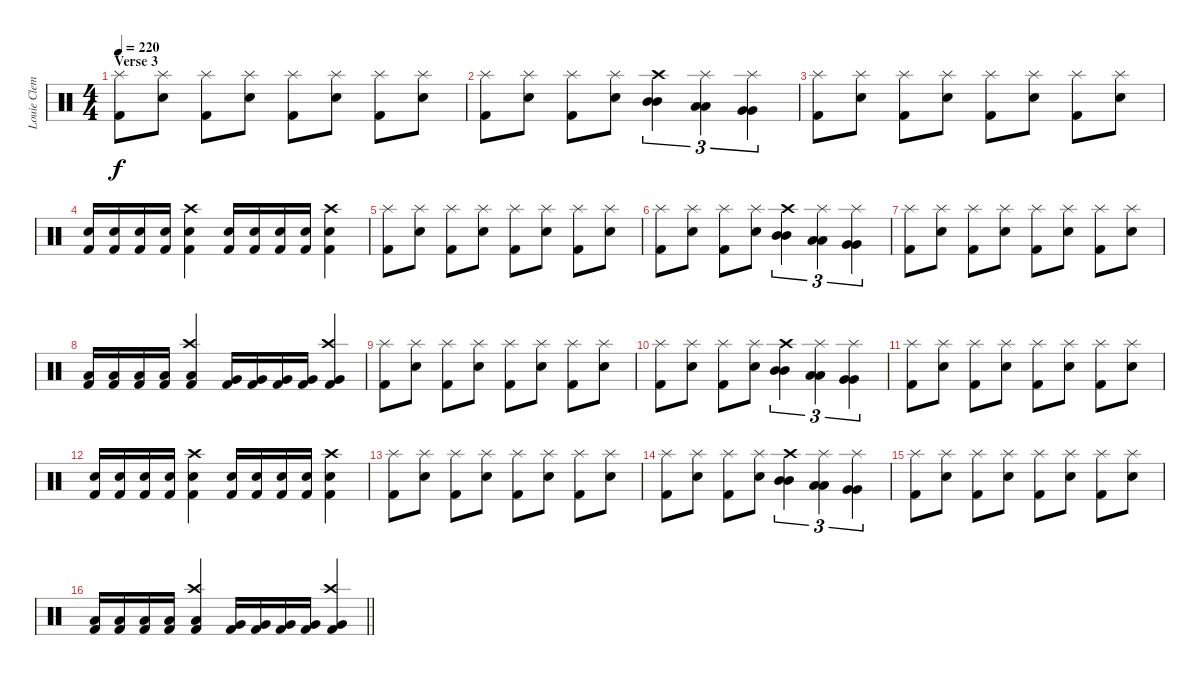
\track ("Louie Clemente (Drums)" "Louie Clem") {instrument percussion}
\staff {score}
\articulation defaults
\ts (4 4)
\section ("" "Verse 3")
\tempo 220
\clef neutral
\ks c
("Splash (hit)" "Kick (hit) 2").8{dy f} ("Splash (hit)" "Electric Snare (hit)").8 ("Splash (hit)" "Kick (hit) 2").8 ("Splash (hit)" "Electric Snare (hit)").8 ("Splash (hit)" "Kick (hit) 2").8 ("Splash (hit)" "Electric Snare (hit)").8 ("Splash (hit)" "Kick (hit) 2").8 ("Splash (hit)" "Electric Snare (hit)").8 |
("Splash (hit)" "Kick (hit) 2").8 ("Splash (hit)" "Electric Snare (hit)").8 ("Splash (hit)" "Kick (hit) 2").8 ("Splash (hit)" "Electric Snare (hit)").8 ("Crash high (hit)" "Mid Tom (hit)" "Mid Tom (hit)").4{tu (3 2)} ("Splash (hit)" "Low Tom (hit)" "Low Tom (hit)").4{tu (3 2)} ("Splash (hit)" "Very Low Tom (hit)" "Very Low Tom (hit)").4{tu (3 2)} |
("Splash (hit)" "Kick (hit) 2").8 ("Splash (hit)" "Electric Snare (hit)").8 ("Splash (hit)" "Kick (hit) 2").8 ("Splash (hit)" "Electric Snare (hit)").8 ("Splash (hit)" "Kick (hit) 2").8 ("Splash (hit)" "Electric Snare (hit)").8 ("Splash (hit)" "Kick (hit) 2").8 ("Splash (hit)" "Electric Snare (hit)").8 |
("Electric Snare (hit)" "Kick (hit) 2").16 ("Electric Snare (hit)" "Kick (hit) 2").16 ("Electric Snare (hit)" "Kick (hit) 2").16 ("Electric Snare (hit)" "Kick (hit) 2").16 ("Crash high (hit)" "Electric Snare (hit)" "Kick (hit) 2").4 ("Electric Snare (hit)" "Kick (hit) 2").16 ("Electric Snare (hit)" "Kick (hit) 2").16 ("Electric Snare (hit)" "Kick (hit) 2").16 ("Electric Snare (hit)" "Kick (hit) 2").16 ("Crash high (hit)" "Electric Snare (hit)" "Kick (hit) 2").4 |
("Splash (hit)" "Kick (hit) 2").8 ("Splash (hit)" "Electric Snare (hit)").8 ("Splash (hit)" "Kick (hit) 2").8 ("Splash (hit)" "Electric Snare (hit)").8 ("Splash (hit)" "Kick (hit) 2").8 ("Splash (hit)" "Electric Snare (hit)").8 ("Splash (hit)" "Kick (hit) 2").8 ("Splash (hit)" "Electric Snare (hit)").8 |
("Splash (hit)" "Kick (hit) 2").8 ("Splash (hit)" "Electric Snare (hit)").8 ("Splash (hit)" "Kick (hit) 2").8 ("Splash (hit)" "Electric Snare (hit)").8 ("Crash high (hit)" "Mid Tom (hit)" "Mid Tom (hit)").4{tu (3 2)} ("Splash (hit)" "Low Tom (hit)" "Low Tom (hit)").4{tu (3 2)} ("Splash (hit)" "Very Low Tom (hit)" "Very Low Tom (hit)").4{tu (3 2)} |
("Splash (hit)" "Kick (hit) 2").8 ("Splash (hit)" "Electric Snare (hit)").8 ("Splash (hit)" "Kick (hit) 2").8 ("Splash (hit)" "Electric Snare (hit)").8 ("Splash (hit)" "Kick (hit) 2").8 ("Splash (hit)" "Electric Snare (hit)").8 ("Splash (hit)" "Kick (hit) 2").8 ("Splash (hit)" "Electric Snare (hit)").8 |
("Low Tom (hit)" "Kick (hit) 2").16 ("Low Tom (hit)" "Kick (hit) 2").16 ("Low Tom (hit)" "Kick (hit) 2").16 ("Low Tom (hit)" "Kick (hit) 2").16 ("Crash high (hit)" "Low Tom (hit)" "Kick (hit) 2").4 ("Very Low Tom (hit)" "Kick (hit) 2").16 ("Very Low Tom (hit)" "Kick (hit) 2").16 ("Very Low Tom (hit)" "Kick (hit) 2").16 ("Very Low Tom (hit)" "Kick (hit) 2").16 ("Crash high (hit)" "Very Low Tom (hit)" "Kick (hit) 2").4 |
("Splash (hit)" "Kick (hit) 2").8 ("Splash (hit)" "Electric Snare (hit)").8 ("Splash (hit)" "Kick (hit) 2").8 ("Splash (hit)" "Electric Snare (hit)").8 ("Splash (hit)" "Kick (hit) 2").8 ("Splash (hit)" "Electric Snare (hit)").8 ("Splash (hit)" "Kick (hit) 2").8 ("Splash (hit)" "Electric Snare (hit)").8 |
("Splash (hit)" "Kick (hit) 2").8 ("Splash (hit)" "Electric Snare (hit)").8 ("Splash (hit)" "Kick (hit) 2").8 ("Splash (hit)" "Electric Snare (hit)").8 ("Crash high (hit)" "Mid Tom (hit)" "Mid Tom (hit)").4{tu (3 2)} ("Splash (hit)" "Low Tom (hit)" "Low Tom (hit)").4{tu (3 2)} ("Splash (hit)" "Very Low Tom (hit)" "Very Low Tom (hit)").4{tu (3 2)} |
("Splash (hit)" "Kick (hit) 2").8 ("Splash (hit)" "Electric Snare (hit)").8 ("Splash (hit)" "Kick (hit) 2").8 ("Splash (hit)" "Electric Snare (hit)").8 ("Splash (hit)" "Kick (hit) 2").8 ("Splash (hit)" "Electric Snare (hit)").8 ("Splash (hit)" "Kick (hit) 2").8 ("Splash (hit)" "Electric Snare (hit)").8 |
("Electric Snare (hit)" "Kick (hit) 2").16 ("Electric Snare (hit)" "Kick (hit) 2").16 ("Electric Snare (hit)" "Kick (hit) 2").16 ("Electric Snare (hit)" "Kick (hit) 2").16 ("Crash high (hit)" "Electric Snare (hit)" "Kick (hit) 2").4 ("Electric Snare (hit)" "Kick (hit) 2").16 ("Electric Snare (hit)" "Kick (hit) 2").16 ("Electric Snare (hit)" "Kick (hit) 2").16 ("Electric Snare (hit)" "Kick (hit) 2").16 ("Crash high (hit)" "Electric Snare (hit)" "Kick (hit) 2").4 |
("Splash (hit)" "Kick (hit) 2").8 ("Splash (hit)" "Electric Snare (hit)").8 ("Splash (hit)" "Kick (hit) 2").8 ("Splash (hit)" "Electric Snare (hit)").8 ("Splash (hit)" "Kick (hit) 2").8 ("Splash (hit)" "Electric Snare (hit)").8 ("Splash (hit)" "Kick (hit) 2").8 ("Splash (hit)" "Electric Snare (hit)").8 |
("Splash (hit)" "Kick (hit) 2").8 ("Splash (hit)" "Electric Snare (hit)").8 ("Splash (hit)" "Kick (hit) 2").8 ("Splash (hit)" "Electric Snare (hit)").8 ("Crash high (hit)" "Mid Tom (hit)" "Mid Tom (hit)").4{tu (3 2)} ("Splash (hit)" "Low Tom (hit)" "Low Tom (hit)").4{tu (3 2)} ("Splash (hit)" "Very Low Tom (hit)" "Very Low Tom (hit)").4{tu (3 2)} |
("Splash (hit)" "Kick (hit) 2").8 ("Splash (hit)" "Electric Snare (hit)").8 ("Splash (hit)" "Kick (hit) 2").8 ("Splash (hit)" "Electric Snare (hit)").8 ("Splash (hit)" "Kick (hit) 2").8 ("Splash (hit)" "Electric Snare (hit)").8 ("Splash (hit)" "Kick (hit) 2").8 ("Splash (hit)" "Electric Snare (hit)").8 |
\barLineRight lightlight
("Low Tom (hit)" "Kick (hit) 2").16 ("Low Tom (hit)" "Kick (hit) 2").16 ("Low Tom (hit)" "Kick (hit) 2").16 ("Low Tom (hit)" "Kick (hit) 2").16 ("Crash high (hit)" "Low Tom (hit)" "Kick (hit) 2").4 ("Very Low Tom (hit)" "Kick (hit) 2").16 ("Very Low Tom (hit)" "Kick (hit) 2").16 ("Very Low Tom (hit)" "Kick (hit) 2").16 ("Very Low Tom (hit)" "Kick (hit) 2").16 ("Crash high (hit)" "Very Low Tom (hit)" "Kick (hit) 2").4
